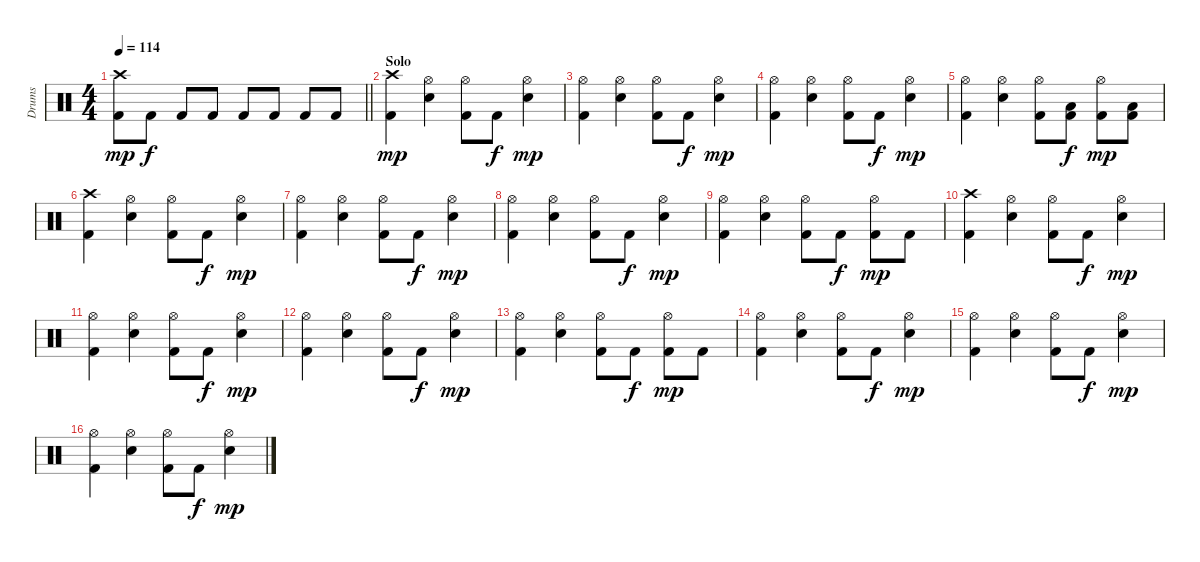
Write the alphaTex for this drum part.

\track ("Drums" "Drums") {instrument percussion}
\staff {score}
\articulation defaults
\ts (4 4)
\tempo 114
\clef neutral
\barLineRight lightlight
\ks c
("Crash high (hit)" "Kick (hit) 2").8{dy mp} "Kick (hit) 2".8{dy f} "Kick (hit) 2".8 "Kick (hit) 2".8 "Kick (hit) 2".8 "Kick (hit) 2".8 "Kick (hit) 2".8 "Kick (hit) 2".8 |
\section ("" "Solo")
("Crash high (hit)" "Kick (hit) 2").4{dy mp} ("Hi-Hat (open)" "Snare (hit) 2").4 ("Hi-Hat (open)" "Kick (hit) 2").8 "Kick (hit) 2".8{dy f} ("Hi-Hat (open)" "Snare (hit) 2").4{dy mp} |
("Hi-Hat (open)" "Kick (hit) 2").4 ("Hi-Hat (open)" "Snare (hit) 2").4 ("Hi-Hat (open)" "Kick (hit) 2").8 "Kick (hit) 2".8{dy f} ("Hi-Hat (open)" "Snare (hit) 2").4{dy mp} |
("Hi-Hat (open)" "Kick (hit) 2").4 ("Hi-Hat (open)" "Snare (hit) 2").4 ("Hi-Hat (open)" "Kick (hit) 2").8 "Kick (hit) 2".8{dy f} ("Hi-Hat (open)" "Snare (hit) 2").4{dy mp} |
("Hi-Hat (open)" "Kick (hit) 2").4 ("Hi-Hat (open)" "Snare (hit) 2").4 ("Hi-Hat (open)" "Kick (hit) 2").8 ("Low Tom (hit)" "Kick (hit) 2").8{dy f} ("Hi-Hat (open)" "Kick (hit) 2").8{dy mp} ("Low Tom (hit)" "Kick (hit) 2").8 |
("Crash high (hit)" "Kick (hit) 2").4 ("Hi-Hat (open)" "Snare (hit) 2").4 ("Hi-Hat (open)" "Kick (hit) 2").8 "Kick (hit) 2".8{dy f} ("Hi-Hat (open)" "Snare (hit) 2").4{dy mp} |
("Hi-Hat (open)" "Kick (hit) 2").4 ("Hi-Hat (open)" "Snare (hit) 2").4 ("Hi-Hat (open)" "Kick (hit) 2").8 "Kick (hit) 2".8{dy f} ("Hi-Hat (open)" "Snare (hit) 2").4{dy mp} |
("Hi-Hat (open)" "Kick (hit) 2").4 ("Hi-Hat (open)" "Snare (hit) 2").4 ("Hi-Hat (open)" "Kick (hit) 2").8 "Kick (hit) 2".8{dy f} ("Hi-Hat (open)" "Snare (hit) 2").4{dy mp} |
("Hi-Hat (open)" "Kick (hit) 2").4 ("Hi-Hat (open)" "Snare (hit) 2").4 ("Hi-Hat (open)" "Kick (hit) 2").8 "Kick (hit) 2".8{dy f} ("Hi-Hat (open)" "Kick (hit) 2").8{dy mp} "Kick (hit) 2".8 |
("Crash high (hit)" "Kick (hit) 2").4 ("Hi-Hat (open)" "Snare (hit) 2").4 ("Hi-Hat (open)" "Kick (hit) 2").8 "Kick (hit) 2".8{dy f} ("Hi-Hat (open)" "Snare (hit) 2").4{dy mp} |
("Hi-Hat (open)" "Kick (hit) 2").4 ("Hi-Hat (open)" "Snare (hit) 2").4 ("Hi-Hat (open)" "Kick (hit) 2").8 "Kick (hit) 2".8{dy f} ("Hi-Hat (open)" "Snare (hit) 2").4{dy mp} |
("Hi-Hat (open)" "Kick (hit) 2").4 ("Hi-Hat (open)" "Snare (hit) 2").4 ("Hi-Hat (open)" "Kick (hit) 2").8 "Kick (hit) 2".8{dy f} ("Hi-Hat (open)" "Snare (hit) 2").4{dy mp} |
("Hi-Hat (open)" "Kick (hit) 2").4 ("Hi-Hat (open)" "Snare (hit) 2").4 ("Hi-Hat (open)" "Kick (hit) 2").8 "Kick (hit) 2".8{dy f} ("Hi-Hat (open)" "Kick (hit) 2").8{dy mp} "Kick (hit) 2".8 |
("Hi-Hat (open)" "Kick (hit) 2").4 ("Hi-Hat (open)" "Snare (hit) 2").4 ("Hi-Hat (open)" "Kick (hit) 2").8 "Kick (hit) 2".8{dy f} ("Hi-Hat (open)" "Snare (hit) 2").4{dy mp} |
("Hi-Hat (open)" "Kick (hit) 2").4 ("Hi-Hat (open)" "Snare (hit) 2").4 ("Hi-Hat (open)" "Kick (hit) 2").8 "Kick (hit) 2".8{dy f} ("Hi-Hat (open)" "Snare (hit) 2").4{dy mp} |
("Hi-Hat (open)" "Kick (hit) 2").4 ("Hi-Hat (open)" "Snare (hit) 2").4 ("Hi-Hat (open)" "Kick (hit) 2").8 "Kick (hit) 2".8{dy f} ("Hi-Hat (open)" "Snare (hit) 2").4{dy mp}
